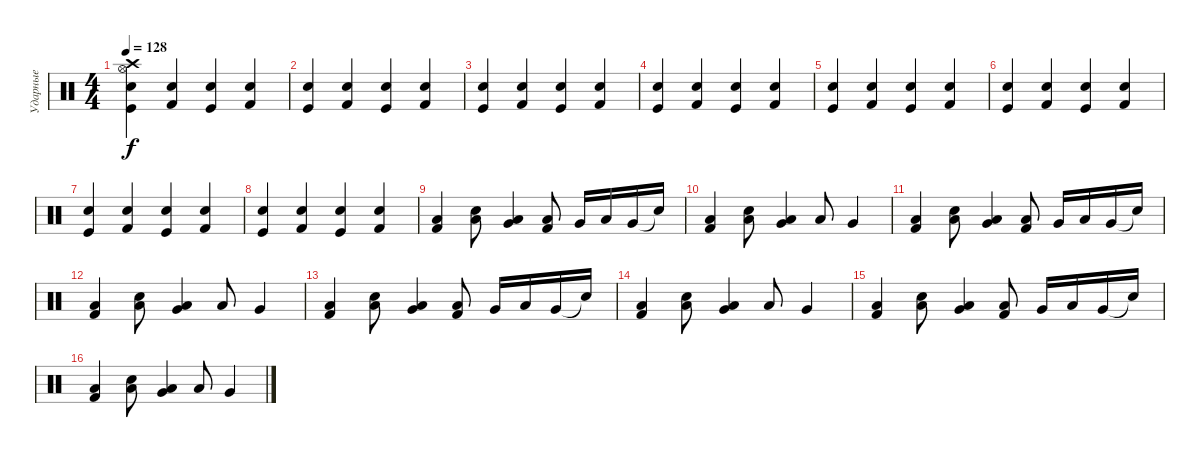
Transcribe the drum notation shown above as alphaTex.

\track ("Ударные" "Ударные") {instrument percussion}
\staff {score}
\articulation defaults
\ts (4 4)
\tempo 128
\clef neutral
\ks c
("Kick (hit)" "Electric Snare (hit)" "Crash high (hit)" "Hi-Hat (open)").4{dy f} ("Kick (hit) 2" "Snare (hit) 2").4 ("Kick (hit)" "Electric Snare (hit)").4 ("Kick (hit) 2" "Snare (hit) 2").4 |
("Kick (hit)" "Electric Snare (hit)").4 ("Kick (hit) 2" "Snare (hit) 2").4 ("Kick (hit)" "Electric Snare (hit)").4 ("Kick (hit) 2" "Snare (hit) 2").4 |
("Kick (hit)" "Electric Snare (hit)").4 ("Kick (hit) 2" "Snare (hit) 2").4 ("Kick (hit)" "Electric Snare (hit)").4 ("Kick (hit) 2" "Snare (hit) 2").4 |
("Kick (hit)" "Electric Snare (hit)").4 ("Kick (hit) 2" "Snare (hit) 2").4 ("Kick (hit)" "Electric Snare (hit)").4 ("Kick (hit) 2" "Snare (hit) 2").4 |
("Kick (hit)" "Electric Snare (hit)").4 ("Kick (hit) 2" "Snare (hit) 2").4 ("Kick (hit)" "Electric Snare (hit)").4 ("Kick (hit) 2" "Snare (hit) 2").4 |
("Kick (hit)" "Electric Snare (hit)").4 ("Kick (hit) 2" "Snare (hit) 2").4 ("Kick (hit)" "Electric Snare (hit)").4 ("Kick (hit) 2" "Snare (hit) 2").4 |
("Kick (hit)" "Electric Snare (hit)").4 ("Kick (hit) 2" "Snare (hit) 2").4 ("Kick (hit)" "Electric Snare (hit)").4 ("Kick (hit) 2" "Snare (hit) 2").4 |
("Kick (hit)" "Electric Snare (hit)").4 ("Kick (hit) 2" "Snare (hit) 2").4 ("Kick (hit)" "Electric Snare (hit)").4 ("Kick (hit) 2" "Snare (hit) 2").4 |
("Kick (hit) 2" "Low Floor Tom (hit)").4 ("Low Tom (hit)" "Snare (hit) 2").8 ("Very Low Tom (hit)" "Low Floor Tom (hit)").4 ("Kick (hit) 2" "Low Floor Tom (hit)").8 "Very Low Tom (hit)".16 "Low Floor Tom (hit)".16 "Very Low Tom (hit)".16 "Snare (hit)"{t}.16 |
("Kick (hit) 2" "Low Floor Tom (hit)").4 ("Low Tom (hit)" "Snare (hit) 2").8 ("Very Low Tom (hit)" "Low Floor Tom (hit)").4 "Low Floor Tom (hit)".8 "Very Low Tom (hit)".4 |
("Kick (hit) 2" "Low Floor Tom (hit)").4 ("Low Tom (hit)" "Snare (hit) 2").8 ("Very Low Tom (hit)" "Low Floor Tom (hit)").4 ("Kick (hit) 2" "Low Floor Tom (hit)").8 "Very Low Tom (hit)".16 "Low Floor Tom (hit)".16 "Very Low Tom (hit)".16 "Snare (hit)"{t}.16 |
("Kick (hit) 2" "Low Floor Tom (hit)").4 ("Low Tom (hit)" "Snare (hit) 2").8 ("Very Low Tom (hit)" "Low Floor Tom (hit)").4 "Low Floor Tom (hit)".8 "Very Low Tom (hit)".4 |
("Kick (hit) 2" "Low Floor Tom (hit)").4 ("Low Tom (hit)" "Snare (hit) 2").8 ("Very Low Tom (hit)" "Low Floor Tom (hit)").4 ("Kick (hit) 2" "Low Floor Tom (hit)").8 "Very Low Tom (hit)".16 "Low Floor Tom (hit)".16 "Very Low Tom (hit)".16 "Snare (hit)"{t}.16 |
("Kick (hit) 2" "Low Floor Tom (hit)").4 ("Low Tom (hit)" "Snare (hit) 2").8 ("Very Low Tom (hit)" "Low Floor Tom (hit)").4 "Low Floor Tom (hit)".8 "Very Low Tom (hit)".4 |
("Kick (hit) 2" "Low Floor Tom (hit)").4 ("Low Tom (hit)" "Snare (hit) 2").8 ("Very Low Tom (hit)" "Low Floor Tom (hit)").4 ("Kick (hit) 2" "Low Floor Tom (hit)").8 "Very Low Tom (hit)".16 "Low Floor Tom (hit)".16 "Very Low Tom (hit)".16 "Snare (hit)"{t}.16 |
("Kick (hit) 2" "Low Floor Tom (hit)").4 ("Low Tom (hit)" "Snare (hit) 2").8 ("Very Low Tom (hit)" "Low Floor Tom (hit)").4 "Low Floor Tom (hit)".8 "Very Low Tom (hit)".4
